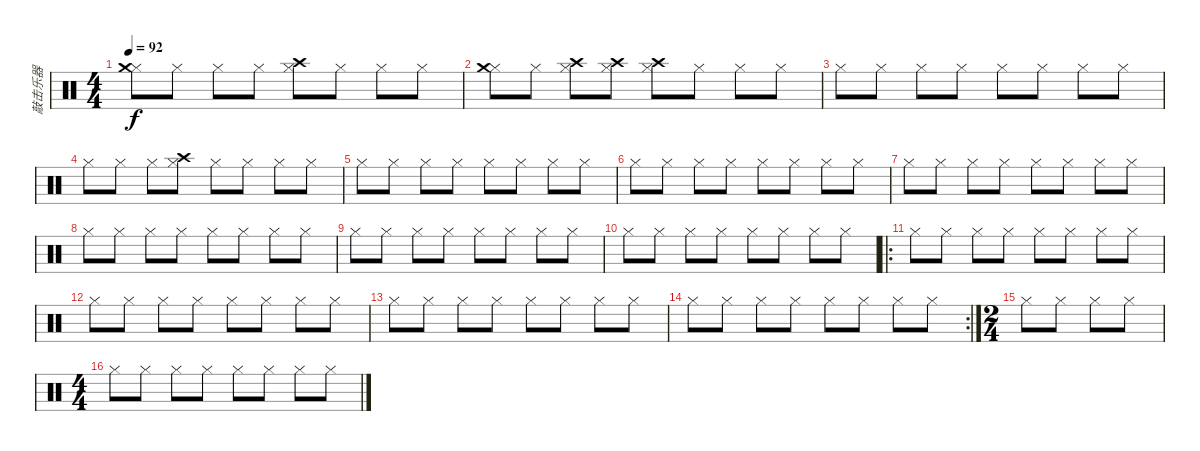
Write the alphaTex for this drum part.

\track ("敲击乐器" "敲击乐器") {instrument percussion}
\staff {score}
\articulation defaults
\ts (4 4)
\tempo 92
\clef neutral
\ks c
("Hi-Hat (closed)" "Crash medium (hit)").8{dy f} "Hi-Hat (closed)".8 "Hi-Hat (closed)".8 "Hi-Hat (closed)".8 ("Hi-Hat (closed)" "Crash high (hit)").8 "Hi-Hat (closed)".8 "Hi-Hat (closed)".8 "Hi-Hat (closed)".8 |
("Hi-Hat (closed)" "Crash medium (hit)").8 "Hi-Hat (closed)".8 ("Hi-Hat (closed)" "Crash high (hit)").8 ("Hi-Hat (closed)" "Crash high (hit)").8 ("Hi-Hat (closed)" "Crash high (hit)").8 "Hi-Hat (closed)".8 "Hi-Hat (closed)".8 "Hi-Hat (closed)".8 |
"Hi-Hat (closed)".8 "Hi-Hat (closed)".8 "Hi-Hat (closed)".8 "Hi-Hat (closed)".8 "Hi-Hat (closed)".8 "Hi-Hat (closed)".8 "Hi-Hat (closed)".8 "Hi-Hat (closed)".8 |
"Hi-Hat (closed)".8 "Hi-Hat (closed)".8 "Hi-Hat (closed)".8 ("Hi-Hat (closed)" "Crash high (hit)").8 "Hi-Hat (closed)".8 "Hi-Hat (closed)".8 "Hi-Hat (closed)".8 "Hi-Hat (closed)".8 |
"Hi-Hat (closed)".8 "Hi-Hat (closed)".8 "Hi-Hat (closed)".8 "Hi-Hat (closed)".8 "Hi-Hat (closed)".8 "Hi-Hat (closed)".8 "Hi-Hat (closed)".8 "Hi-Hat (closed)".8 |
"Hi-Hat (closed)".8 "Hi-Hat (closed)".8 "Hi-Hat (closed)".8 "Hi-Hat (closed)".8 "Hi-Hat (closed)".8 "Hi-Hat (closed)".8 "Hi-Hat (closed)".8 "Hi-Hat (closed)".8 |
"Hi-Hat (closed)".8 "Hi-Hat (closed)".8 "Hi-Hat (closed)".8 "Hi-Hat (closed)".8 "Hi-Hat (closed)".8 "Hi-Hat (closed)".8 "Hi-Hat (closed)".8 "Hi-Hat (closed)".8 |
"Hi-Hat (closed)".8 "Hi-Hat (closed)".8 "Hi-Hat (closed)".8 "Hi-Hat (closed)".8 "Hi-Hat (closed)".8 "Hi-Hat (closed)".8 "Hi-Hat (closed)".8 "Hi-Hat (closed)".8 |
"Hi-Hat (closed)".8 "Hi-Hat (closed)".8 "Hi-Hat (closed)".8 "Hi-Hat (closed)".8 "Hi-Hat (closed)".8 "Hi-Hat (closed)".8 "Hi-Hat (closed)".8 "Hi-Hat (closed)".8 |
"Hi-Hat (closed)".8 "Hi-Hat (closed)".8 "Hi-Hat (closed)".8 "Hi-Hat (closed)".8 "Hi-Hat (closed)".8 "Hi-Hat (closed)".8 "Hi-Hat (closed)".8 "Hi-Hat (closed)".8 |
\ro "Hi-Hat (closed)".8 "Hi-Hat (closed)".8 "Hi-Hat (closed)".8 "Hi-Hat (closed)".8 "Hi-Hat (closed)".8 "Hi-Hat (closed)".8 "Hi-Hat (closed)".8 "Hi-Hat (closed)".8
|
"Hi-Hat (closed)".8 "Hi-Hat (closed)".8 "Hi-Hat (closed)".8 "Hi-Hat (closed)".8 "Hi-Hat (closed)".8 "Hi-Hat (closed)".8 "Hi-Hat (closed)".8 "Hi-Hat (closed)".8 |
"Hi-Hat (closed)".8 "Hi-Hat (closed)".8 "Hi-Hat (closed)".8 "Hi-Hat (closed)".8 "Hi-Hat (closed)".8 "Hi-Hat (closed)".8 "Hi-Hat (closed)".8 "Hi-Hat (closed)".8 |
\rc 2 "Hi-Hat (closed)".8 "Hi-Hat (closed)".8 "Hi-Hat (closed)".8 "Hi-Hat (closed)".8 "Hi-Hat (closed)".8 "Hi-Hat (closed)".8 "Hi-Hat (closed)".8 "Hi-Hat (closed)".8
|
\ts (2 4)
"Hi-Hat (closed)".8 "Hi-Hat (closed)".8 "Hi-Hat (closed)".8 "Hi-Hat (closed)".8 |
\ts (4 4)
"Hi-Hat (closed)".8 "Hi-Hat (closed)".8 "Hi-Hat (closed)".8 "Hi-Hat (closed)".8 "Hi-Hat (closed)".8 "Hi-Hat (closed)".8 "Hi-Hat (closed)".8 "Hi-Hat (closed)".8
